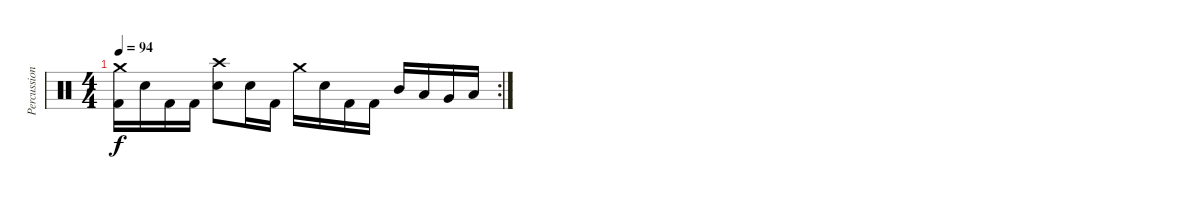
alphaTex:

\track ("Percussions" "Percussion") {instrument percussion}
\staff {score}
\articulation defaults
\rc 2
\ts (4 4)
\tempo 94
\clef neutral
\ks c
("Crash medium (hit)" "Kick (hit) 2").16{dy f} "Electric Snare (hit)".16 "Kick (hit) 2".16 "Kick (hit) 2".16 ("Crash high (hit)" "Electric Snare (hit)").8 "Electric Snare (hit)".16 "Kick (hit) 2".16 "Crash medium (hit)".16 "Electric Snare (hit)".16 "Kick (hit) 2".16 "Kick (hit) 2".16 "Mid Tom (hit)".16 "Low Tom (hit)".16 "Very Low Tom (hit)".16 "Low Floor Tom (hit)".16
